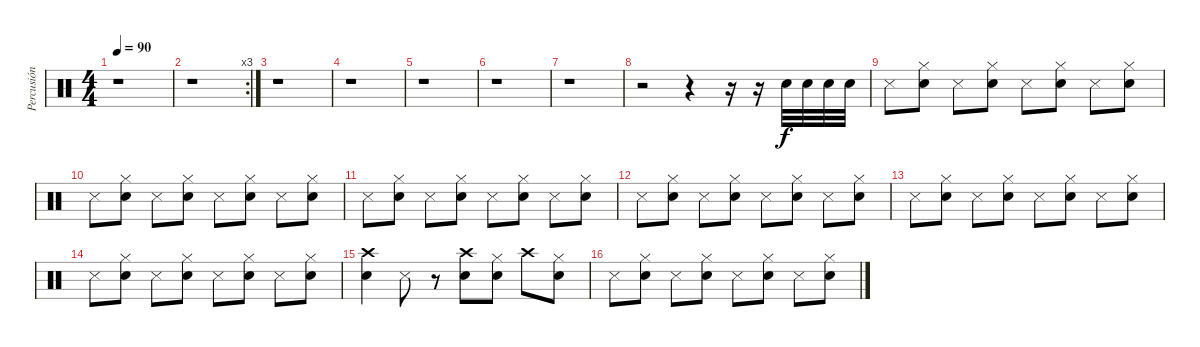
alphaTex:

\track ("Percusión" "Percusión") {instrument percussion}
\staff {score}
\articulation defaults
\ts (4 4)
\tempo 90
\clef neutral
\ks c
r.1{dy f} |
\rc 3
r.1 |
r.1 |
r.1 |
r.1 |
r.1 |
r.1 |
r.2 r.4 r.16 r.16 "Electric Snare (hit)".32{volume 10} "Electric Snare (hit)".32{volume 12} "Electric Snare (hit)".32{volume 14} "Electric Snare (hit)".32{volume 15} |
"Snare (side stick) 3".8 ("Electric Snare (hit)" "Hi-Hat (closed)").8 "Snare (side stick) 3".8 ("Electric Snare (hit)" "Hi-Hat (closed)").8 "Snare (side stick) 3".8 ("Electric Snare (hit)" "Hi-Hat (closed)").8 "Snare (side stick) 3".8 ("Electric Snare (hit)" "Hi-Hat (closed)").8 |
"Snare (side stick) 3".8 ("Electric Snare (hit)" "Hi-Hat (closed)").8 "Snare (side stick) 3".8 ("Electric Snare (hit)" "Hi-Hat (closed)").8 "Snare (side stick) 3".8 ("Electric Snare (hit)" "Hi-Hat (closed)").8 "Snare (side stick) 3".8 ("Electric Snare (hit)" "Hi-Hat (closed)").8 |
"Snare (side stick) 3".8 ("Electric Snare (hit)" "Hi-Hat (closed)").8 "Snare (side stick) 3".8 ("Electric Snare (hit)" "Hi-Hat (closed)").8 "Snare (side stick) 3".8 ("Electric Snare (hit)" "Hi-Hat (closed)").8 "Snare (side stick) 3".8 ("Electric Snare (hit)" "Hi-Hat (closed)").8 |
"Snare (side stick) 3".8 ("Electric Snare (hit)" "Hi-Hat (closed)").8 "Snare (side stick) 3".8 ("Electric Snare (hit)" "Hi-Hat (closed)").8 "Snare (side stick) 3".8 ("Electric Snare (hit)" "Hi-Hat (closed)").8 "Snare (side stick) 3".8 ("Electric Snare (hit)" "Hi-Hat (closed)").8 |
"Snare (side stick) 3".8 ("Electric Snare (hit)" "Hi-Hat (closed)").8 "Snare (side stick) 3".8 ("Electric Snare (hit)" "Hi-Hat (closed)").8 "Snare (side stick) 3".8 ("Electric Snare (hit)" "Hi-Hat (closed)").8 "Snare (side stick) 3".8 ("Electric Snare (hit)" "Hi-Hat (closed)").8 |
"Snare (side stick) 3".8 ("Electric Snare (hit)" "Hi-Hat (closed)").8 "Snare (side stick) 3".8 ("Electric Snare (hit)" "Hi-Hat (closed)").8 "Snare (side stick) 3".8 ("Electric Snare (hit)" "Hi-Hat (closed)").8 "Snare (side stick) 3".8 ("Electric Snare (hit)" "Hi-Hat (closed)").8 |
("Crash high (hit)" "Electric Snare (hit)").4 "Snare (side stick) 3".8 r.8 ("Crash high (hit)" "Electric Snare (hit)").8 ("Electric Snare (hit)" "Hi-Hat (closed)").8 "Crash high (hit)".8 ("Electric Snare (hit)" "Hi-Hat (closed)").8 |
"Snare (side stick) 3".8 ("Electric Snare (hit)" "Hi-Hat (closed)").8 "Snare (side stick) 3".8 ("Electric Snare (hit)" "Hi-Hat (closed)").8 "Snare (side stick) 3".8 ("Electric Snare (hit)" "Hi-Hat (closed)").8 "Snare (side stick) 3".8 ("Electric Snare (hit)" "Hi-Hat (closed)").8
